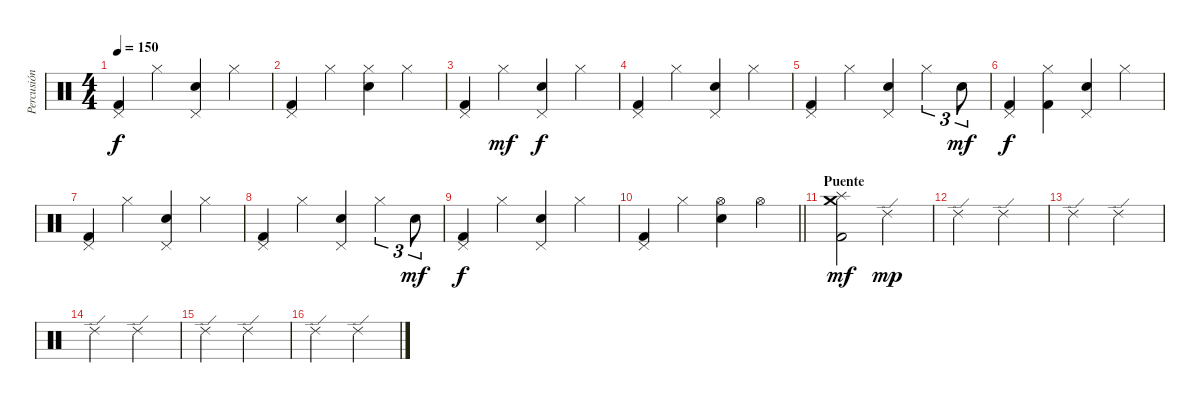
\track ("Percusión" "Percusión") {instrument percussion}
\staff {score}
\articulation defaults
\ts (4 4)
\tempo 150
\clef neutral
\ks c
("Pedal Hi-Hat (hit)" "Kick (hit) 2").4{dy f} "Hi-Hat (closed)".4 ("Pedal Hi-Hat (hit)" "Electric Snare (hit)").4 "Hi-Hat (closed)".4 |
("Pedal Hi-Hat (hit)" "Kick (hit) 2").4 "Hi-Hat (closed)".4 ("Hi-Hat (closed)" "Electric Snare (hit)").4 "Hi-Hat (closed)".4 |
("Pedal Hi-Hat (hit)" "Kick (hit) 2").4 "Hi-Hat (closed)".4{dy mf} ("Pedal Hi-Hat (hit)" "Electric Snare (hit)").4{dy f} "Hi-Hat (closed)".4 |
("Pedal Hi-Hat (hit)" "Kick (hit) 2").4 "Hi-Hat (closed)".4 ("Pedal Hi-Hat (hit)" "Electric Snare (hit)").4 "Hi-Hat (closed)".4 |
("Pedal Hi-Hat (hit)" "Kick (hit) 2").4 "Hi-Hat (closed)".4 ("Pedal Hi-Hat (hit)" "Electric Snare (hit)").4 "Hi-Hat (closed)".4{tu (3 2)} "Electric Snare (hit)".8{tu (3 2) dy mf} |
("Pedal Hi-Hat (hit)" "Kick (hit) 2").4{dy f} ("Hi-Hat (closed)" "Kick (hit) 2").4 ("Pedal Hi-Hat (hit)" "Electric Snare (hit)").4 "Hi-Hat (closed)".4 |
("Pedal Hi-Hat (hit)" "Kick (hit) 2").4 "Hi-Hat (closed)".4 ("Pedal Hi-Hat (hit)" "Electric Snare (hit)").4 "Hi-Hat (closed)".4 |
("Pedal Hi-Hat (hit)" "Kick (hit) 2").4 "Hi-Hat (closed)".4 ("Pedal Hi-Hat (hit)" "Electric Snare (hit)").4 "Hi-Hat (closed)".4{tu (3 2)} "Electric Snare (hit)".8{tu (3 2) dy mf} |
("Pedal Hi-Hat (hit)" "Kick (hit) 2").4{dy f} "Hi-Hat (closed)".4 ("Pedal Hi-Hat (hit)" "Electric Snare (hit)").4 "Hi-Hat (closed)".4 |
\barLineRight lightlight
("Pedal Hi-Hat (hit)" "Kick (hit) 2").4 "Hi-Hat (closed)".4 ("Hi-Hat (open)" "Electric Snare (hit)").4 "Hi-Hat (open)".4 |
\section ("" "Puente")
("Crash medium (hit)" "Splash (hit)" "Kick (hit) 2").2{dy mf} "Ride (edge) 2".2{dy mp} |
"Ride (edge) 2".2 "Ride (edge) 2".2 |
"Ride (edge) 2".2 "Ride (edge) 2".2 |
"Ride (edge) 2".2 "Ride (edge) 2".2 |
"Ride (edge) 2".2 "Ride (edge) 2".2 |
"Ride (edge) 2".2 "Ride (edge) 2".2
